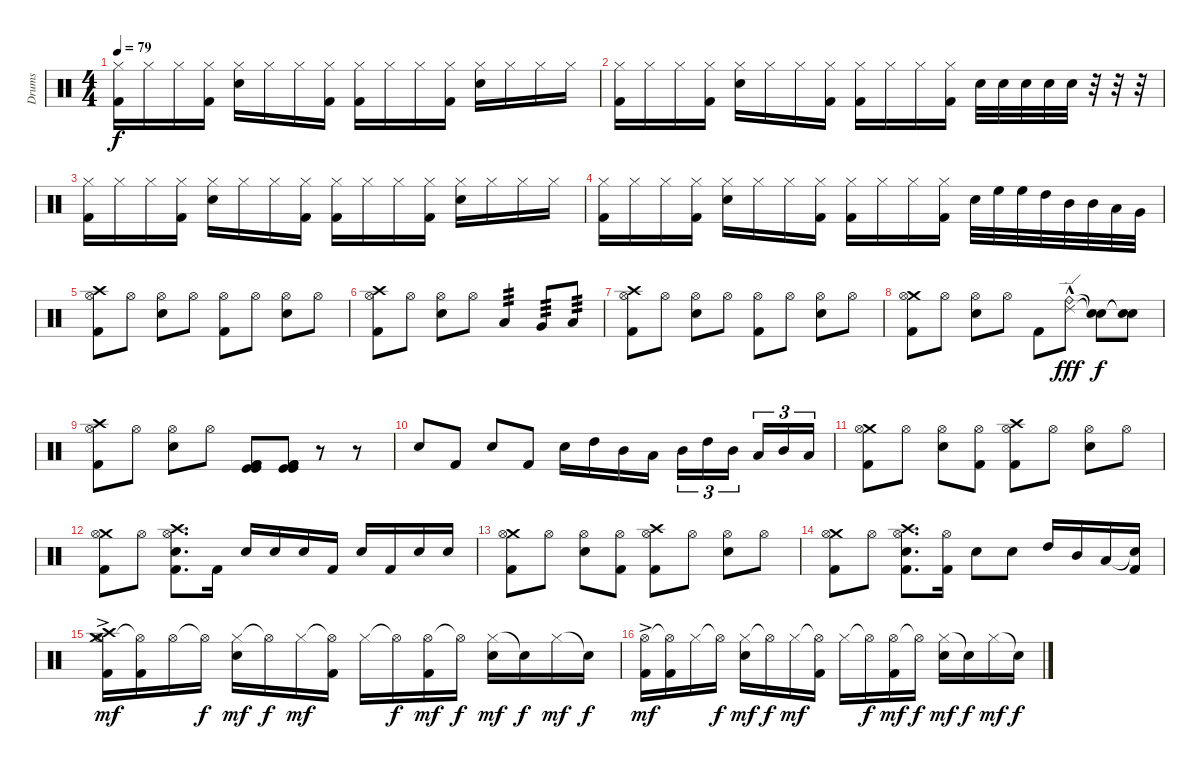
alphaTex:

\track ("Drums" "Drums") {instrument percussion}
\staff {score}
\articulation defaults
\ts (4 4)
\tempo 79
\clef neutral
\ks c
("Hi-Hat (closed)" "Kick (hit) 2").16{dy f} "Hi-Hat (closed)".16 "Hi-Hat (closed)".16 ("Hi-Hat (closed)" "Kick (hit) 2").16 ("Hi-Hat (closed)" "Electric Snare (hit)").16 "Hi-Hat (closed)".16 "Hi-Hat (closed)".16 ("Hi-Hat (closed)" "Kick (hit) 2").16 ("Hi-Hat (closed)" "Kick (hit) 2").16 "Hi-Hat (closed)".16 "Hi-Hat (closed)".16 ("Hi-Hat (closed)" "Kick (hit) 2").16 ("Hi-Hat (closed)" "Electric Snare (hit)").16 "Hi-Hat (closed)".16 "Hi-Hat (closed)".16 "Hi-Hat (closed)".16 |
("Hi-Hat (closed)" "Kick (hit) 2").16 "Hi-Hat (closed)".16 "Hi-Hat (closed)".16 ("Hi-Hat (closed)" "Kick (hit) 2").16 ("Hi-Hat (closed)" "Electric Snare (hit)").16 "Hi-Hat (closed)".16 "Hi-Hat (closed)".16 ("Hi-Hat (closed)" "Kick (hit) 2").16 ("Hi-Hat (closed)" "Kick (hit) 2").16 "Hi-Hat (closed)".16 "Hi-Hat (closed)".16 ("Hi-Hat (closed)" "Kick (hit) 2").16 "Electric Snare (hit)".32 "Electric Snare (hit)".32 "Electric Snare (hit)".32 "Electric Snare (hit)".32 "Electric Snare (hit)".32 r.32 r.32 r.32 |
("Hi-Hat (closed)" "Kick (hit) 2").16 "Hi-Hat (closed)".16 "Hi-Hat (closed)".16 ("Hi-Hat (closed)" "Kick (hit) 2").16 ("Hi-Hat (closed)" "Electric Snare (hit)").16 "Hi-Hat (closed)".16 "Hi-Hat (closed)".16 ("Hi-Hat (closed)" "Kick (hit) 2").16 ("Hi-Hat (closed)" "Kick (hit) 2").16 "Hi-Hat (closed)".16 "Hi-Hat (closed)".16 ("Hi-Hat (closed)" "Kick (hit) 2").16 ("Hi-Hat (closed)" "Electric Snare (hit)").16 "Hi-Hat (closed)".16 "Hi-Hat (closed)".16 "Hi-Hat (closed)".16 |
("Hi-Hat (closed)" "Kick (hit) 2").16 "Hi-Hat (closed)".16 "Hi-Hat (closed)".16 ("Hi-Hat (closed)" "Kick (hit) 2").16 ("Hi-Hat (closed)" "Electric Snare (hit)").16 "Hi-Hat (closed)".16 "Hi-Hat (closed)".16 ("Hi-Hat (closed)" "Kick (hit) 2").16 ("Hi-Hat (closed)" "Kick (hit) 2").16 "Hi-Hat (closed)".16 "Hi-Hat (closed)".16 ("Hi-Hat (closed)" "Kick (hit) 2").16 "Electric Snare (hit)".32 "High Floor Tom (hit)".32 "High Floor Tom (hit)".32 "High Tom (hit)".32 "Mid Tom (hit)".32 "Mid Tom (hit)".32 "Low Tom (hit)".32 "Very Low Tom (hit)".32 |
("Crash high (hit)" "Hi-Hat (open)" "Kick (hit) 2").8 "Hi-Hat (open)".8 ("Hi-Hat (open)" "Electric Snare (hit)").8 "Hi-Hat (open)".8 ("Hi-Hat (open)" "Kick (hit) 2").8 "Hi-Hat (open)".8 ("Hi-Hat (open)" "Electric Snare (hit)").8 "Hi-Hat (open)".8 |
("Crash high (hit)" "Hi-Hat (open)" "Kick (hit) 2").8 "Hi-Hat (open)".8 ("Hi-Hat (open)" "Electric Snare (hit)").8 "Hi-Hat (open)".8 "Low Tom (hit)".4{tp 3} "Very Low Tom (hit)".8{tp 3} "Low Floor Tom (hit)".8{tp 3} |
("Crash high (hit)" "Hi-Hat (open)" "Kick (hit) 2").8 "Hi-Hat (open)".8 ("Hi-Hat (open)" "Electric Snare (hit)").8 "Hi-Hat (open)".8 ("Hi-Hat (open)" "Kick (hit) 2").8 "Hi-Hat (open)".8 ("Hi-Hat (open)" "Electric Snare (hit)").8 "Hi-Hat (open)".8 |
("Crash medium (hit)" "Hi-Hat (open)" "Kick (hit) 2").8 "Hi-Hat (open)".8 ("Hi-Hat (open)" "Electric Snare (hit)").8 "Hi-Hat (open)".8 "Kick (hit) 2".8 ("Ride (bell)"{hac} "Ride (edge) 2").8{dy fff} ("Snare (hit)"{t} "Snare (hit)"{t}).8{dy f} ("Snare (hit)"{t} "Snare (hit)"{t}).8 |
("Crash high (hit)" "Hi-Hat (open)" "Kick (hit) 2").8 "Hi-Hat (open)".8 ("Hi-Hat (open)" "Electric Snare (hit)").8 "Hi-Hat (open)".8 ("Kick (hit)" "Kick (hit) 2" "Kick (hit) 2" "Kick (hit)").8 ("Kick (hit)" "Kick (hit) 2" "Kick (hit) 2" "Kick (hit)").8 r.8 r.8 |
"Electric Snare (hit)".8 "Kick (hit) 2".8 "Electric Snare (hit)".8 "Kick (hit) 2".8 "Electric Snare (hit)".16 "High Tom (hit)".16 "Mid Tom (hit)".16 "Low Tom (hit)".16 "Mid Tom (hit)".16{tu (3 2)} "High Tom (hit)".16{tu (3 2)} "Mid Tom (hit)".16{tu (3 2) beam splitsecondary} "Low Tom (hit)".16{tu (3 2)} "Mid Tom (hit)".16{tu (3 2)} "Low Tom (hit)".16{tu (3 2)} |
("Crash medium (hit)" "Hi-Hat (open)" "Kick (hit) 2").8 "Hi-Hat (open)".8 ("Hi-Hat (open)" "Electric Snare (hit)").8 ("Hi-Hat (open)" "Kick (hit) 2").8 ("Crash high (hit)" "Hi-Hat (open)" "Kick (hit) 2").8 "Hi-Hat (open)".8 ("Hi-Hat (open)" "Electric Snare (hit)").8 "Hi-Hat (open)".8 |
("Crash medium (hit)" "Hi-Hat (open)" "Kick (hit) 2").8 "Hi-Hat (open)".8 ("Crash high (hit)" "Hi-Hat (open)" "Electric Snare (hit)" "Kick (hit) 2").8{d} "Kick (hit) 2".16 "Electric Snare (hit)".16 "Electric Snare (hit)".16 "Electric Snare (hit)".16 "Kick (hit) 2".16 "Electric Snare (hit)".16 "Kick (hit) 2".16 "Electric Snare (hit)".16 "Electric Snare (hit)".16 |
("Crash medium (hit)" "Hi-Hat (open)" "Kick (hit) 2").8 "Hi-Hat (open)".8 ("Hi-Hat (open)" "Electric Snare (hit)").8 ("Hi-Hat (open)" "Kick (hit) 2").8 ("Crash high (hit)" "Hi-Hat (open)" "Kick (hit) 2").8 "Hi-Hat (open)".8 ("Hi-Hat (open)" "Electric Snare (hit)").8 "Hi-Hat (open)".8 |
("Crash medium (hit)" "Hi-Hat (open)" "Kick (hit) 2").8 "Hi-Hat (open)".8 ("Crash high (hit)" "Hi-Hat (open)" "Electric Snare (hit)" "Kick (hit) 2").8{d} ("Hi-Hat (open)" "Kick (hit) 2").16 "Electric Snare (hit)".8 "Electric Snare (hit)".8 "High Tom (hit)".16 "Mid Tom (hit)".16 "Low Tom (hit)".16 ("Snare (hit)"{t} "Kick (hit) 2").16 |
("Crash medium (hit)" "Crash high (hit)" "Hi-Hat (open)"{ac} "Kick (hit) 2").16{dy mf} ("Hi-Hat (open)"{t} "Kick (hit) 2").16 "Hi-Hat (open)".16 "Hi-Hat (open)"{t}.16{dy f} ("Hi-Hat (closed)" "Electric Snare (hit)").16{dy mf} "Hi-Hat (open)"{t}.16{dy f} "Hi-Hat (closed)".16{dy mf} ("Hi-Hat (open)"{t} "Kick (hit) 2").16 "Hi-Hat (closed)".16 "Hi-Hat (open)"{t}.16{dy f} ("Hi-Hat (open)" "Kick (hit) 2").16{dy mf} "Hi-Hat (open)"{t}.16{dy f} ("Hi-Hat (closed)" "Electric Snare (hit)").16{dy mf} "Snare (hit)"{t}.16{dy f} "Hi-Hat (closed)".16{dy mf} "Snare (hit)"{t}.16{dy f} |
("Hi-Hat (open)"{ac} "Kick (hit) 2").16{dy mf} ("Hi-Hat (open)"{t} "Kick (hit) 2").16 "Hi-Hat (closed)".16 "Hi-Hat (open)"{t}.16{dy f} ("Hi-Hat (closed)" "Electric Snare (hit)").16{dy mf} "Hi-Hat (open)"{t}.16{dy f} "Hi-Hat (closed)".16{dy mf} ("Hi-Hat (open)"{t} "Kick (hit) 2").16 "Hi-Hat (closed)".16 "Hi-Hat (open)"{t}.16{dy f} ("Hi-Hat (open)" "Kick (hit) 2").16{dy mf} "Hi-Hat (open)"{t}.16{dy f} ("Hi-Hat (closed)" "Electric Snare (hit)").16{dy mf} "Snare (hit)"{t}.16{dy f} "Hi-Hat (closed)".16{dy mf} "Snare (hit)"{t}.16{dy f}
